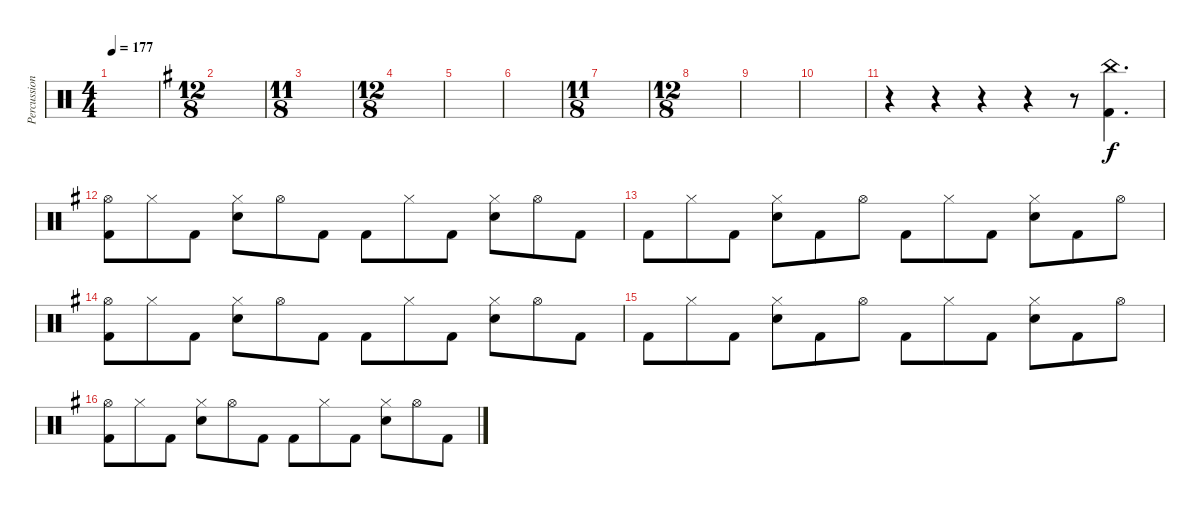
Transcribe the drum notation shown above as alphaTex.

\track ("Percussion" "Percussion") {instrument percussion}
\staff {score}
\articulation defaults
\ts (4 4)
\tempo 177
\clef neutral
\ks c
|
\ts (12 8)
\ks g
|
\ts (11 8)
|
\ts (12 8)
|
|
|
\ts (11 8)
|
\ts (12 8)
|
|
|
r.4 r.4 r.4 r.4 r.8 ("China (hit)" "Kick (hit) 2").4{d} |
("Hi-Hat (open)" "Kick (hit) 2").8 "Hi-Hat (closed)".8 "Kick (hit) 2".8 ("Hi-Hat (closed)" "Snare (hit) 2").8 "Hi-Hat (open)".8 "Kick (hit) 2".8 "Kick (hit) 2".8 "Hi-Hat (closed)".8 "Kick (hit) 2".8 ("Hi-Hat (closed)" "Snare (hit) 2").8 "Hi-Hat (open)".8 "Kick (hit) 2".8 |
"Kick (hit) 2".8 "Hi-Hat (closed)".8 "Kick (hit) 2".8 ("Hi-Hat (closed)" "Snare (hit) 2").8 "Kick (hit) 2".8 "Hi-Hat (open)".8 "Kick (hit) 2".8 "Hi-Hat (closed)".8 "Kick (hit) 2".8 ("Hi-Hat (closed)" "Snare (hit) 2").8 "Kick (hit) 2".8 "Hi-Hat (open)".8 |
("Hi-Hat (open)" "Kick (hit) 2").8 "Hi-Hat (closed)".8 "Kick (hit) 2".8 ("Hi-Hat (closed)" "Snare (hit) 2").8 "Hi-Hat (open)".8 "Kick (hit) 2".8 "Kick (hit) 2".8 "Hi-Hat (closed)".8 "Kick (hit) 2".8 ("Hi-Hat (closed)" "Snare (hit) 2").8 "Hi-Hat (open)".8 "Kick (hit) 2".8 |
"Kick (hit) 2".8 "Hi-Hat (closed)".8 "Kick (hit) 2".8 ("Hi-Hat (closed)" "Snare (hit) 2").8 "Kick (hit) 2".8 "Hi-Hat (open)".8 "Kick (hit) 2".8 "Hi-Hat (closed)".8 "Kick (hit) 2".8 ("Hi-Hat (closed)" "Snare (hit) 2").8 "Kick (hit) 2".8 "Hi-Hat (open)".8 |
("Hi-Hat (open)" "Kick (hit) 2").8 "Hi-Hat (closed)".8 "Kick (hit) 2".8 ("Hi-Hat (closed)" "Snare (hit) 2").8 "Hi-Hat (open)".8 "Kick (hit) 2".8 "Kick (hit) 2".8 "Hi-Hat (closed)".8 "Kick (hit) 2".8 ("Hi-Hat (closed)" "Snare (hit) 2").8 "Hi-Hat (open)".8 "Kick (hit) 2".8
